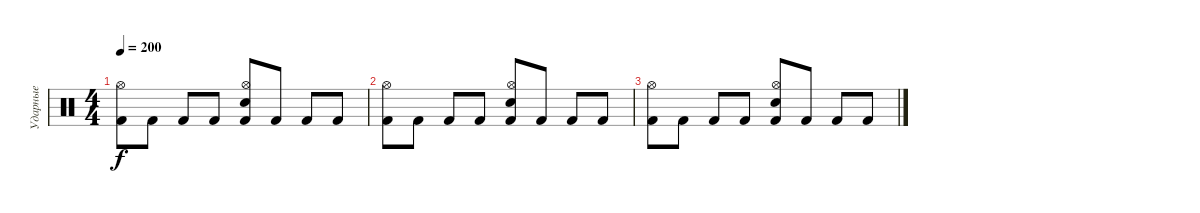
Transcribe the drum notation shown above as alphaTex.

\track ("Ударные" "Ударные") {instrument percussion}
\staff {score}
\articulation defaults
\ts (4 4)
\tempo 200
\clef neutral
\ks c
("Kick (hit) 2" "Hi-Hat (open)").8{dy f} "Kick (hit) 2".8 "Kick (hit) 2".8 "Kick (hit) 2".8 ("Kick (hit) 2" "Electric Snare (hit)" "Hi-Hat (open)").8 "Kick (hit) 2".8 "Kick (hit) 2".8 "Kick (hit) 2".8 |
("Kick (hit) 2" "Hi-Hat (open)").8 "Kick (hit) 2".8 "Kick (hit) 2".8 "Kick (hit) 2".8 ("Kick (hit) 2" "Electric Snare (hit)" "Hi-Hat (open)").8 "Kick (hit) 2".8 "Kick (hit) 2".8 "Kick (hit) 2".8 |
("Kick (hit) 2" "Hi-Hat (open)").8 "Kick (hit) 2".8 "Kick (hit) 2".8 "Kick (hit) 2".8 ("Kick (hit) 2" "Electric Snare (hit)" "Hi-Hat (open)").8 "Kick (hit) 2".8 "Kick (hit) 2".8 "Kick (hit) 2".8
